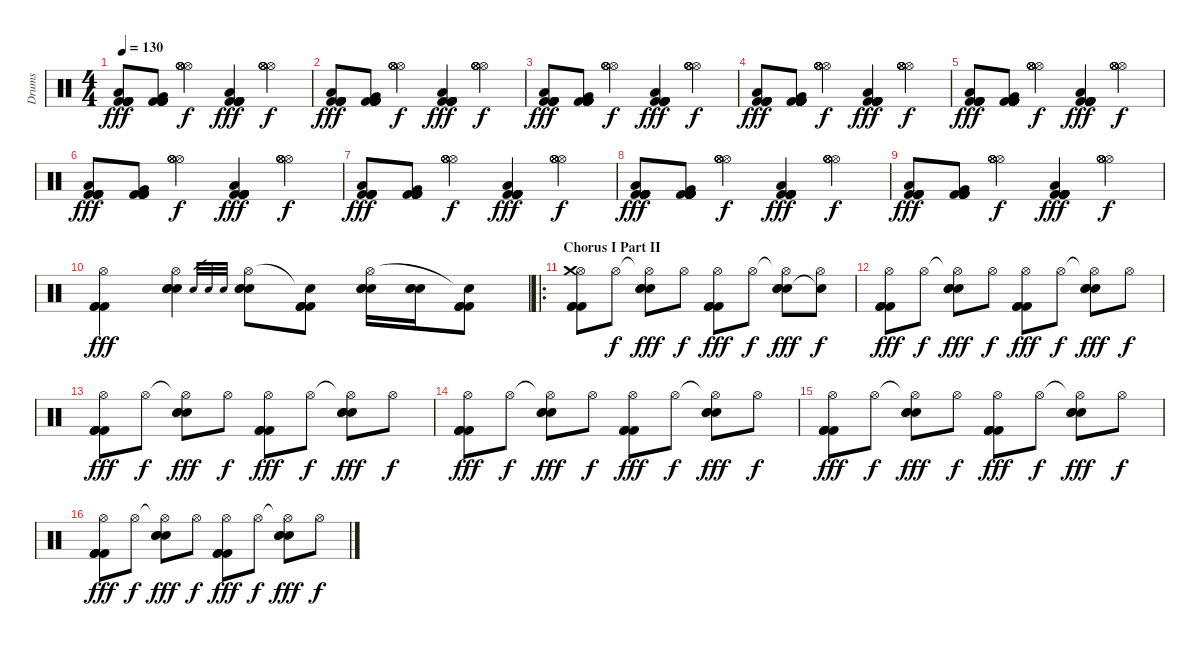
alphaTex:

\track ("Drums" "Drums") {instrument percussion}
\staff {score}
\articulation defaults
\ts (4 4)
\tempo 130
\clef neutral
\ks c
("Kick (hit) 2" "Low Tom (hit)" "Kick (hit) 2" "Kick (hit) 2" "Kick (hit) 2" "Kick (hit) 2").8{dy fff} ("Kick (hit) 2" "Very Low Tom (hit)" "Kick (hit) 2" "Kick (hit) 2" "Kick (hit) 2" "Kick (hit) 2").8 ("Hi-Hat (open)" "Hi-Hat (open)" "Hi-Hat (open)" "Hi-Hat (open)" "Hi-Hat (open)").4{dy f} ("Kick (hit) 2" "Low Floor Tom (hit)" "Kick (hit) 2" "Kick (hit) 2" "Kick (hit) 2" "Kick (hit) 2").4{dy fff} ("Hi-Hat (open)" "Hi-Hat (open)" "Hi-Hat (open)" "Hi-Hat (open)" "Hi-Hat (open)").4{dy f} |
("Kick (hit) 2" "Low Tom (hit)" "Kick (hit) 2" "Kick (hit) 2" "Kick (hit) 2" "Kick (hit) 2").8{dy fff} ("Kick (hit) 2" "Very Low Tom (hit)" "Kick (hit) 2" "Kick (hit) 2" "Kick (hit) 2" "Kick (hit) 2").8 ("Hi-Hat (open)" "Hi-Hat (open)" "Hi-Hat (open)" "Hi-Hat (open)" "Hi-Hat (open)").4{dy f} ("Kick (hit) 2" "Low Floor Tom (hit)" "Kick (hit) 2" "Kick (hit) 2" "Kick (hit) 2" "Kick (hit) 2").4{dy fff} ("Hi-Hat (open)" "Hi-Hat (open)" "Hi-Hat (open)" "Hi-Hat (open)" "Hi-Hat (open)").4{dy f} |
("Kick (hit) 2" "Low Tom (hit)" "Kick (hit) 2" "Kick (hit) 2" "Kick (hit) 2" "Kick (hit) 2").8{dy fff} ("Kick (hit) 2" "Very Low Tom (hit)" "Kick (hit) 2" "Kick (hit) 2" "Kick (hit) 2" "Kick (hit) 2").8 ("Hi-Hat (open)" "Hi-Hat (open)" "Hi-Hat (open)" "Hi-Hat (open)" "Hi-Hat (open)").4{dy f} ("Kick (hit) 2" "Low Floor Tom (hit)" "Kick (hit) 2" "Kick (hit) 2" "Kick (hit) 2" "Kick (hit) 2").4{dy fff} ("Hi-Hat (open)" "Hi-Hat (open)" "Hi-Hat (open)" "Hi-Hat (open)" "Hi-Hat (open)").4{dy f} |
("Kick (hit) 2" "Low Tom (hit)" "Kick (hit) 2" "Kick (hit) 2" "Kick (hit) 2" "Kick (hit) 2").8{dy fff} ("Kick (hit) 2" "Very Low Tom (hit)" "Kick (hit) 2" "Kick (hit) 2" "Kick (hit) 2" "Kick (hit) 2").8 ("Hi-Hat (open)" "Hi-Hat (open)" "Hi-Hat (open)" "Hi-Hat (open)" "Hi-Hat (open)").4{dy f} ("Kick (hit) 2" "Low Floor Tom (hit)" "Kick (hit) 2" "Kick (hit) 2" "Kick (hit) 2" "Kick (hit) 2").4{dy fff} ("Hi-Hat (open)" "Hi-Hat (open)" "Hi-Hat (open)" "Hi-Hat (open)" "Hi-Hat (open)").4{dy f} |
("Kick (hit) 2" "Low Tom (hit)" "Kick (hit) 2" "Kick (hit) 2" "Kick (hit) 2" "Kick (hit) 2").8{dy fff} ("Kick (hit) 2" "Very Low Tom (hit)" "Kick (hit) 2" "Kick (hit) 2" "Kick (hit) 2" "Kick (hit) 2").8 ("Hi-Hat (open)" "Hi-Hat (open)" "Hi-Hat (open)" "Hi-Hat (open)" "Hi-Hat (open)").4{dy f} ("Kick (hit) 2" "Low Floor Tom (hit)" "Kick (hit) 2" "Kick (hit) 2" "Kick (hit) 2" "Kick (hit) 2").4{dy fff} ("Hi-Hat (open)" "Hi-Hat (open)" "Hi-Hat (open)" "Hi-Hat (open)" "Hi-Hat (open)").4{dy f} |
("Kick (hit) 2" "Low Tom (hit)" "Kick (hit) 2" "Kick (hit) 2" "Kick (hit) 2" "Kick (hit) 2").8{dy fff} ("Kick (hit) 2" "Very Low Tom (hit)" "Kick (hit) 2" "Kick (hit) 2" "Kick (hit) 2" "Kick (hit) 2").8 ("Hi-Hat (open)" "Hi-Hat (open)" "Hi-Hat (open)" "Hi-Hat (open)" "Hi-Hat (open)").4{dy f} ("Kick (hit) 2" "Low Floor Tom (hit)" "Kick (hit) 2" "Kick (hit) 2" "Kick (hit) 2" "Kick (hit) 2").4{dy fff} ("Hi-Hat (open)" "Hi-Hat (open)" "Hi-Hat (open)" "Hi-Hat (open)" "Hi-Hat (open)").4{dy f} |
("Kick (hit) 2" "Low Tom (hit)" "Kick (hit) 2" "Kick (hit) 2" "Kick (hit) 2" "Kick (hit) 2").8{dy fff} ("Kick (hit) 2" "Very Low Tom (hit)" "Kick (hit) 2" "Kick (hit) 2" "Kick (hit) 2" "Kick (hit) 2").8 ("Hi-Hat (open)" "Hi-Hat (open)" "Hi-Hat (open)" "Hi-Hat (open)" "Hi-Hat (open)").4{dy f} ("Kick (hit) 2" "Low Floor Tom (hit)" "Kick (hit) 2" "Kick (hit) 2" "Kick (hit) 2" "Kick (hit) 2").4{dy fff} ("Hi-Hat (open)" "Hi-Hat (open)" "Hi-Hat (open)" "Hi-Hat (open)" "Hi-Hat (open)").4{dy f} |
("Kick (hit) 2" "Low Tom (hit)" "Kick (hit) 2" "Kick (hit) 2" "Kick (hit) 2" "Kick (hit) 2").8{dy fff} ("Kick (hit) 2" "Very Low Tom (hit)" "Kick (hit) 2" "Kick (hit) 2" "Kick (hit) 2" "Kick (hit) 2").8 ("Hi-Hat (open)" "Hi-Hat (open)" "Hi-Hat (open)" "Hi-Hat (open)" "Hi-Hat (open)").4{dy f} ("Kick (hit) 2" "Low Floor Tom (hit)" "Kick (hit) 2" "Kick (hit) 2" "Kick (hit) 2" "Kick (hit) 2").4{dy fff} ("Hi-Hat (open)" "Hi-Hat (open)" "Hi-Hat (open)" "Hi-Hat (open)" "Hi-Hat (open)").4{dy f} |
("Kick (hit) 2" "Low Tom (hit)" "Kick (hit) 2" "Kick (hit) 2" "Kick (hit) 2" "Kick (hit) 2").8{dy fff} ("Kick (hit) 2" "Very Low Tom (hit)" "Kick (hit) 2" "Kick (hit) 2" "Kick (hit) 2" "Kick (hit) 2").8 ("Hi-Hat (open)" "Hi-Hat (open)" "Hi-Hat (open)" "Hi-Hat (open)" "Hi-Hat (open)").4{dy f} ("Kick (hit) 2" "Low Floor Tom (hit)" "Kick (hit) 2" "Kick (hit) 2" "Kick (hit) 2" "Kick (hit) 2").4{dy fff} ("Hi-Hat (open)" "Hi-Hat (open)" "Hi-Hat (open)" "Hi-Hat (open)" "Hi-Hat (open)").4{dy f} |
("Kick (hit) 2" "Kick (hit) 2" "Kick (hit) 2" "Hi-Hat (open)").4{dy fff} ("Electric Snare (hit)" "Electric Snare (hit)" "Electric Snare (hit)" "Hi-Hat (open)").4 "Electric Snare (hit)".32{gr} "Electric Snare (hit)".32{gr} "Electric Snare (hit)".32{gr} ("Electric Snare (hit)" "Electric Snare (hit)" "Electric Snare (hit)" "Hi-Hat (open)").8 ("Kick (hit) 2" "Kick (hit) 2" "Kick (hit) 2" "Snare (hit)"{t}).8 ("Electric Snare (hit)" "Electric Snare (hit)" "Electric Snare (hit)" "Hi-Hat (open)").16 ("Electric Snare (hit)" "Electric Snare (hit)" "Electric Snare (hit)").16 ("Kick (hit) 2" "Kick (hit) 2" "Kick (hit) 2" "Snare (hit)"{t}).8 |
\ro
\section ("" "Chorus I Part II")
("Hi-Hat (open)" "Kick (hit) 2" "Kick (hit) 2" "Kick (hit) 2" "Crash medium (hit)").8 "Hi-Hat (open)".8{dy f} ("Hi-Hat (open)"{t} "Electric Snare (hit)" "Electric Snare (hit)" "Electric Snare (hit)").8{dy fff} "Hi-Hat (open)".8{dy f} ("Hi-Hat (open)" "Kick (hit) 2" "Kick (hit) 2" "Kick (hit) 2").8{dy fff} "Hi-Hat (open)".8{dy f} ("Hi-Hat (open)"{t} "Electric Snare (hit)" "Electric Snare (hit)" "Electric Snare (hit)").8{dy fff} ("Hi-Hat (open)" "Snare (hit)"{t}).8{dy f} |
("Hi-Hat (open)" "Kick (hit) 2" "Kick (hit) 2" "Kick (hit) 2").8{dy fff} "Hi-Hat (open)".8{dy f} ("Hi-Hat (open)"{t} "Electric Snare (hit)" "Electric Snare (hit)" "Electric Snare (hit)").8{dy fff} "Hi-Hat (open)".8{dy f} ("Hi-Hat (open)" "Kick (hit) 2" "Kick (hit) 2" "Kick (hit) 2").8{dy fff} "Hi-Hat (open)".8{dy f} ("Hi-Hat (open)"{t} "Electric Snare (hit)" "Electric Snare (hit)" "Electric Snare (hit)").8{dy fff} "Hi-Hat (open)".8{dy f} |
("Hi-Hat (open)" "Kick (hit) 2" "Kick (hit) 2" "Kick (hit) 2").8{dy fff} "Hi-Hat (open)".8{dy f} ("Hi-Hat (open)"{t} "Electric Snare (hit)" "Electric Snare (hit)" "Electric Snare (hit)").8{dy fff} "Hi-Hat (open)".8{dy f} ("Hi-Hat (open)" "Kick (hit) 2" "Kick (hit) 2" "Kick (hit) 2").8{dy fff} "Hi-Hat (open)".8{dy f} ("Hi-Hat (open)"{t} "Electric Snare (hit)" "Electric Snare (hit)" "Electric Snare (hit)").8{dy fff} "Hi-Hat (open)".8{dy f} |
("Hi-Hat (open)" "Kick (hit) 2" "Kick (hit) 2" "Kick (hit) 2").8{dy fff} "Hi-Hat (open)".8{dy f} ("Hi-Hat (open)"{t} "Electric Snare (hit)" "Electric Snare (hit)" "Electric Snare (hit)").8{dy fff} "Hi-Hat (open)".8{dy f} ("Hi-Hat (open)" "Kick (hit) 2" "Kick (hit) 2" "Kick (hit) 2").8{dy fff} "Hi-Hat (open)".8{dy f} ("Hi-Hat (open)"{t} "Electric Snare (hit)" "Electric Snare (hit)" "Electric Snare (hit)").8{dy fff} "Hi-Hat (open)".8{dy f} |
("Hi-Hat (open)" "Kick (hit) 2" "Kick (hit) 2" "Kick (hit) 2").8{dy fff} "Hi-Hat (open)".8{dy f} ("Hi-Hat (open)"{t} "Electric Snare (hit)" "Electric Snare (hit)" "Electric Snare (hit)").8{dy fff} "Hi-Hat (open)".8{dy f} ("Hi-Hat (open)" "Kick (hit) 2" "Kick (hit) 2" "Kick (hit) 2").8{dy fff} "Hi-Hat (open)".8{dy f} ("Hi-Hat (open)"{t} "Electric Snare (hit)" "Electric Snare (hit)" "Electric Snare (hit)").8{dy fff} "Hi-Hat (open)".8{dy f} |
("Hi-Hat (open)" "Kick (hit) 2" "Kick (hit) 2" "Kick (hit) 2").8{dy fff} "Hi-Hat (open)".8{dy f} ("Hi-Hat (open)"{t} "Electric Snare (hit)" "Electric Snare (hit)" "Electric Snare (hit)").8{dy fff} "Hi-Hat (open)".8{dy f} ("Hi-Hat (open)" "Kick (hit) 2" "Kick (hit) 2" "Kick (hit) 2").8{dy fff} "Hi-Hat (open)".8{dy f} ("Hi-Hat (open)"{t} "Electric Snare (hit)" "Electric Snare (hit)" "Electric Snare (hit)").8{dy fff} "Hi-Hat (open)".8{dy f}
